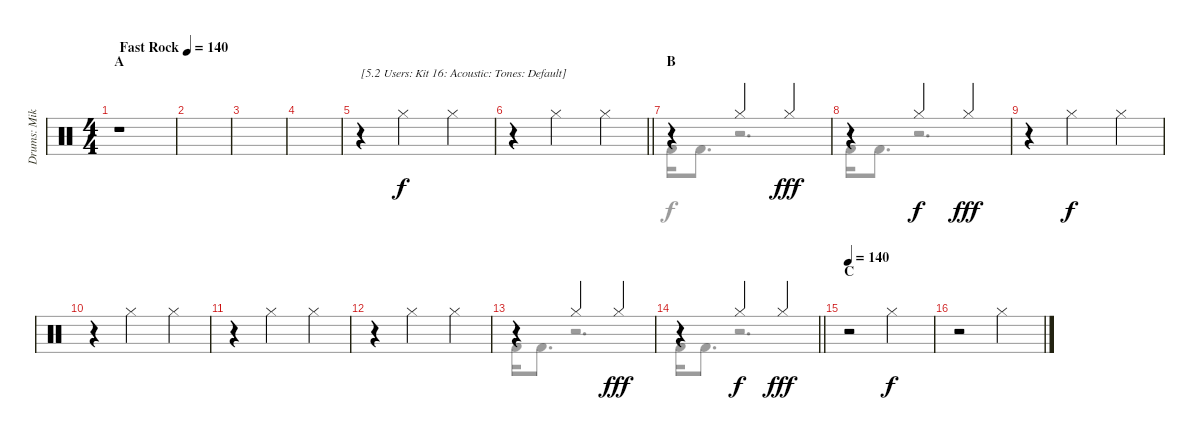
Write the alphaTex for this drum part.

\track ("Drums: Mike" "Drums: Mik") {instrument percussion}
\staff {score}
\articulation defaults
\voice
\ts (4 4)
\section ("" "A")
\tempo (140 "Fast Rock")
\tempo 70
\tempo (140 "Fast Rock")
\clef neutral
\ks c
r.1{dy f} |
|
|
|
r.4{txt "[5.2 Users: Kit 16: Acoustic: Tones: Default]"} "Hi-Hat (closed)".2 "Hi-Hat (closed)".4 |
\barLineRight lightlight
r.4 "Hi-Hat (closed)".2 "Hi-Hat (closed)".4 |
\section ("" "B")
r.4 "Hi-Hat (closed)".2 "Hi-Hat (closed)".4{dy fff} |
r.4 "Hi-Hat (closed)".2{dy f} "Hi-Hat (closed)".4{dy fff} |
r.4 "Hi-Hat (closed)".2{dy f} "Hi-Hat (closed)".4 |
r.4 "Hi-Hat (closed)".2 "Hi-Hat (closed)".4 |
r.4 "Hi-Hat (closed)".2 "Hi-Hat (closed)".4 |
r.4 "Hi-Hat (closed)".2 "Hi-Hat (closed)".4 |
r.4 "Hi-Hat (closed)".2 "Hi-Hat (closed)".4{dy fff} |
\barLineRight lightlight
r.4 "Hi-Hat (closed)".2{dy f} "Hi-Hat (closed)".4{dy fff} |
\section ("" "C")
\tempo 140
r.2 "Hi-Hat (closed)".2{dy f} |
r.2 "Hi-Hat (closed)".2
\voice
\clef neutral
\ottava regular
\simile none
\ks c
|
|
|
|
|
\barLineRight lightlight
|
"Kick (hit) 2".16 "Kick (hit) 2".8{d} r.2{d} |
"Kick (hit) 2".16 "Kick (hit) 2".8{d} r.2{d} |
|
|
|
|
"Kick (hit) 2".16 "Kick (hit) 2".8{d} r.2{d} |
\barLineRight lightlight "Kick (hit) 2".16 "Kick (hit) 2".8{d}
r.2{d} |
|
